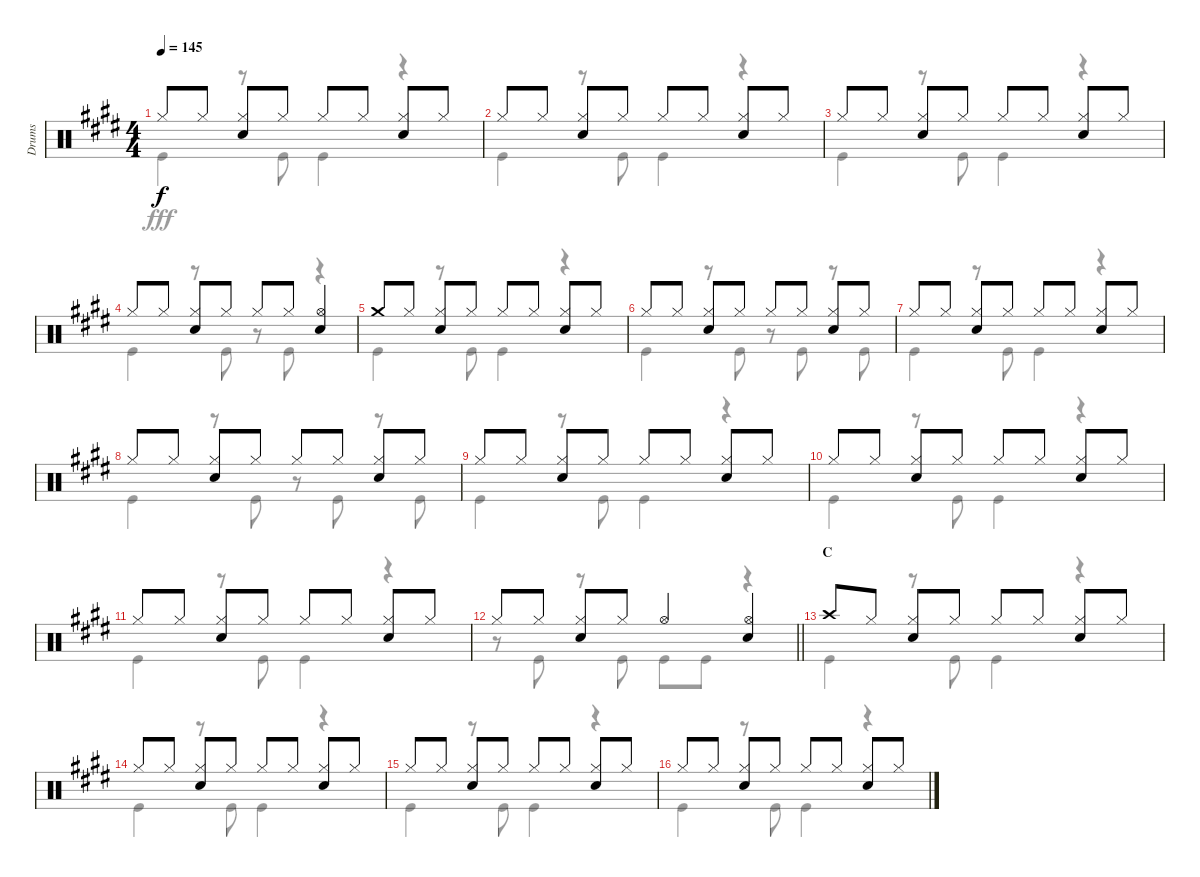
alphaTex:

\track ("Drums" "Drums") {instrument percussion}
\staff {score}
\articulation defaults
\voice
\ts (4 4)
\tempo 145
\clef neutral
\ks e "Hi-Hat (closed)".8{dy f} "Hi-Hat (closed)".8
("Hi-Hat (closed)" "Snare (hit) 2").8 "Hi-Hat (closed)".8 "Hi-Hat (closed)".8 "Hi-Hat (closed)".8 ("Hi-Hat (closed)" "Snare (hit) 2").8 "Hi-Hat (closed)".8 |
"Hi-Hat (closed)".8 "Hi-Hat (closed)".8 ("Hi-Hat (closed)" "Snare (hit) 2").8 "Hi-Hat (closed)".8 "Hi-Hat (closed)".8 "Hi-Hat (closed)".8 ("Hi-Hat (closed)" "Snare (hit) 2").8 "Hi-Hat (closed)".8 |
"Hi-Hat (closed)".8 "Hi-Hat (closed)".8 ("Hi-Hat (closed)" "Snare (hit) 2").8 "Hi-Hat (closed)".8 "Hi-Hat (closed)".8 "Hi-Hat (closed)".8 ("Hi-Hat (closed)" "Snare (hit) 2").8 "Hi-Hat (closed)".8 |
"Hi-Hat (closed)".8 "Hi-Hat (closed)".8 ("Hi-Hat (closed)" "Snare (hit) 2").8 "Hi-Hat (closed)".8 "Hi-Hat (closed)".8 "Hi-Hat (closed)".8 ("Hi-Hat (open)" "Snare (hit) 2").4 |
"Crash medium (hit)".8 "Hi-Hat (closed)".8 ("Hi-Hat (closed)" "Snare (hit) 2").8 "Hi-Hat (closed)".8 "Hi-Hat (closed)".8 "Hi-Hat (closed)".8 ("Hi-Hat (closed)" "Snare (hit) 2").8 "Hi-Hat (closed)".8 |
"Hi-Hat (closed)".8 "Hi-Hat (closed)".8 ("Hi-Hat (closed)" "Snare (hit) 2").8 "Hi-Hat (closed)".8 "Hi-Hat (closed)".8 "Hi-Hat (closed)".8 ("Hi-Hat (closed)" "Snare (hit) 2").8 "Hi-Hat (closed)".8 |
"Hi-Hat (closed)".8 "Hi-Hat (closed)".8 ("Hi-Hat (closed)" "Snare (hit) 2").8 "Hi-Hat (closed)".8 "Hi-Hat (closed)".8 "Hi-Hat (closed)".8 ("Hi-Hat (closed)" "Snare (hit) 2").8 "Hi-Hat (closed)".8 |
"Hi-Hat (closed)".8 "Hi-Hat (closed)".8 ("Hi-Hat (closed)" "Snare (hit) 2").8 "Hi-Hat (closed)".8 "Hi-Hat (closed)".8 "Hi-Hat (closed)".8 ("Hi-Hat (closed)" "Snare (hit) 2").8 "Hi-Hat (closed)".8 |
"Hi-Hat (closed)".8 "Hi-Hat (closed)".8 ("Hi-Hat (closed)" "Snare (hit) 2").8 "Hi-Hat (closed)".8 "Hi-Hat (closed)".8 "Hi-Hat (closed)".8 ("Hi-Hat (closed)" "Snare (hit) 2").8 "Hi-Hat (closed)".8 |
"Hi-Hat (closed)".8 "Hi-Hat (closed)".8 ("Hi-Hat (closed)" "Snare (hit) 2").8 "Hi-Hat (closed)".8 "Hi-Hat (closed)".8 "Hi-Hat (closed)".8 ("Hi-Hat (closed)" "Snare (hit) 2").8 "Hi-Hat (closed)".8 |
"Hi-Hat (closed)".8 "Hi-Hat (closed)".8 ("Hi-Hat (closed)" "Snare (hit) 2").8 "Hi-Hat (closed)".8 "Hi-Hat (closed)".8 "Hi-Hat (closed)".8 ("Hi-Hat (closed)" "Snare (hit) 2").8 "Hi-Hat (closed)".8 |
\barLineRight lightlight "Hi-Hat (closed)".8 "Hi-Hat (closed)".8
("Hi-Hat (closed)" "Snare (hit) 2").8 "Hi-Hat (closed)".8 "Hi-Hat (open)".4 ("Hi-Hat (open)" "Snare (hit) 2").4 |
\section ("" "C")
"Crash high (hit)".8 "Hi-Hat (closed)".8 ("Hi-Hat (closed)" "Snare (hit) 2").8 "Hi-Hat (closed)".8 "Hi-Hat (closed)".8 "Hi-Hat (closed)".8 ("Hi-Hat (closed)" "Snare (hit) 2").8 "Hi-Hat (closed)".8 |
"Hi-Hat (closed)".8 "Hi-Hat (closed)".8 ("Hi-Hat (closed)" "Snare (hit) 2").8 "Hi-Hat (closed)".8 "Hi-Hat (closed)".8 "Hi-Hat (closed)".8 ("Hi-Hat (closed)" "Snare (hit) 2").8 "Hi-Hat (closed)".8 |
"Hi-Hat (closed)".8 "Hi-Hat (closed)".8 ("Hi-Hat (closed)" "Snare (hit) 2").8 "Hi-Hat (closed)".8 "Hi-Hat (closed)".8 "Hi-Hat (closed)".8 ("Hi-Hat (closed)" "Snare (hit) 2").8 "Hi-Hat (closed)".8 |
"Hi-Hat (closed)".8 "Hi-Hat (closed)".8 ("Hi-Hat (closed)" "Snare (hit) 2").8 "Hi-Hat (closed)".8 "Hi-Hat (closed)".8 "Hi-Hat (closed)".8 ("Hi-Hat (closed)" "Snare (hit) 2").8 "Hi-Hat (closed)".8
\voice
\clef neutral
\ottava regular
\simile none
\ks e "Kick (hit)".4{dy fff}
r.8 "Kick (hit)".8 "Kick (hit)".4 r.4 |
"Kick (hit)".4 r.8 "Kick (hit)".8 "Kick (hit)".4 r.4 |
"Kick (hit)".4 r.8 "Kick (hit)".8 "Kick (hit)".4 r.4 |
"Kick (hit)".4 r.8 "Kick (hit)".8 r.8 "Kick (hit)".8 r.4 |
"Kick (hit)".4 r.8 "Kick (hit)".8 "Kick (hit)".4 r.4 |
"Kick (hit)".4 r.8 "Kick (hit)".8 r.8 "Kick (hit)".8 r.8 "Kick (hit)".8 |
"Kick (hit)".4 r.8 "Kick (hit)".8 "Kick (hit)".4 r.4 |
"Kick (hit)".4 r.8 "Kick (hit)".8 r.8 "Kick (hit)".8 r.8 "Kick (hit)".8 |
"Kick (hit)".4 r.8 "Kick (hit)".8 "Kick (hit)".4 r.4 |
"Kick (hit)".4 r.8 "Kick (hit)".8 "Kick (hit)".4 r.4 |
"Kick (hit)".4 r.8 "Kick (hit)".8 "Kick (hit)".4 r.4 |
\barLineRight lightlight
r.8 "Kick (hit)".8 r.8 "Kick (hit)".8 "Kick (hit)".8 "Kick (hit)".8 r.4 |
"Kick (hit)".4 r.8 "Kick (hit)".8 "Kick (hit)".4 r.4 |
"Kick (hit)".4 r.8 "Kick (hit)".8 "Kick (hit)".4 r.4 |
"Kick (hit)".4 r.8 "Kick (hit)".8 "Kick (hit)".4 r.4 |
"Kick (hit)".4 r.8 "Kick (hit)".8 "Kick (hit)".4 r.4
